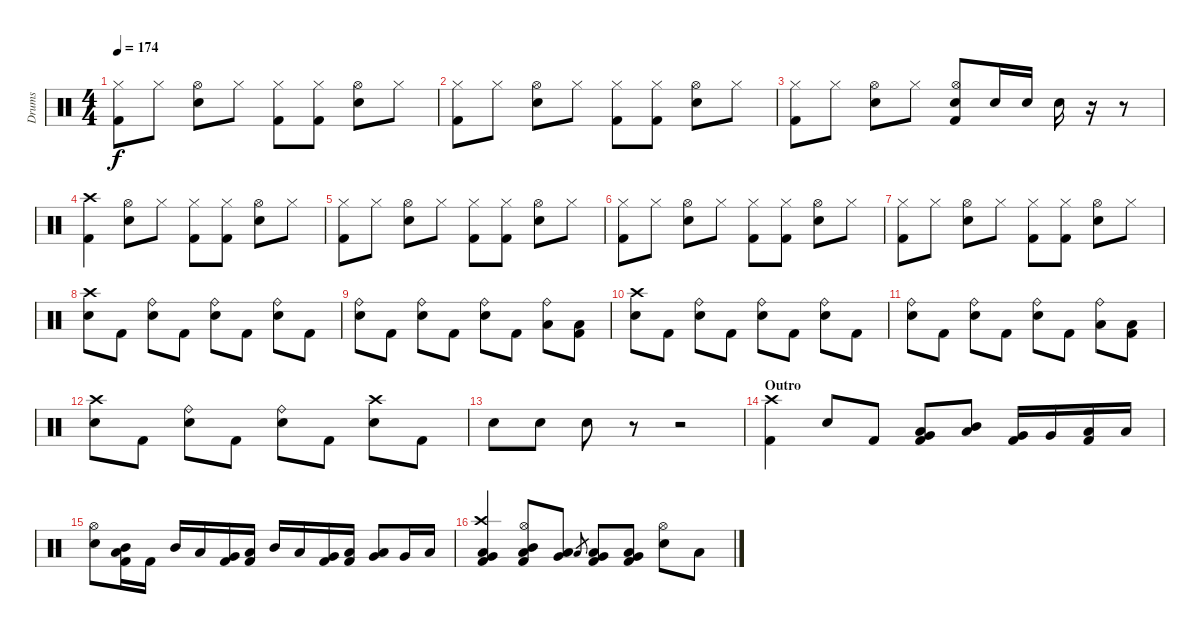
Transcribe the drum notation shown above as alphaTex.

\track ("Drums" "Drums") {instrument percussion}
\staff {score}
\articulation defaults
\ts (4 4)
\tempo 174
\clef neutral
\ks c
("Hi-Hat (closed)" "Kick (hit) 2").8{dy f} "Hi-Hat (closed)".8 ("Hi-Hat (open)" "Electric Snare (hit)").8 "Hi-Hat (closed)".8 ("Hi-Hat (closed)" "Kick (hit) 2").8 ("Hi-Hat (closed)" "Kick (hit) 2").8 ("Hi-Hat (open)" "Electric Snare (hit)").8 "Hi-Hat (closed)".8 |
("Hi-Hat (closed)" "Kick (hit) 2").8 "Hi-Hat (closed)".8 ("Hi-Hat (open)" "Electric Snare (hit)").8 "Hi-Hat (closed)".8 ("Hi-Hat (closed)" "Kick (hit) 2").8 ("Hi-Hat (closed)" "Kick (hit) 2").8 ("Hi-Hat (open)" "Electric Snare (hit)").8 "Hi-Hat (closed)".8 |
("Hi-Hat (closed)" "Kick (hit) 2").8 "Hi-Hat (closed)".8 ("Hi-Hat (open)" "Electric Snare (hit)").8 "Hi-Hat (closed)".8 ("Hi-Hat (open)" "Electric Snare (hit)" "Kick (hit) 2").8 "Electric Snare (hit)".16 "Electric Snare (hit)".16 "Electric Snare (hit)".16 r.16 r.8 |
("Crash high (hit)" "Kick (hit) 2").4 ("Hi-Hat (open)" "Electric Snare (hit)").8 "Hi-Hat (closed)".8 ("Hi-Hat (closed)" "Kick (hit) 2").8 ("Hi-Hat (closed)" "Kick (hit) 2").8 ("Hi-Hat (open)" "Electric Snare (hit)").8 "Hi-Hat (closed)".8 |
("Hi-Hat (closed)" "Kick (hit) 2").8 "Hi-Hat (closed)".8 ("Hi-Hat (open)" "Electric Snare (hit)").8 "Hi-Hat (closed)".8 ("Hi-Hat (closed)" "Kick (hit) 2").8 ("Hi-Hat (closed)" "Kick (hit) 2").8 ("Hi-Hat (open)" "Electric Snare (hit)").8 "Hi-Hat (closed)".8 |
("Hi-Hat (closed)" "Kick (hit) 2").8 "Hi-Hat (closed)".8 ("Hi-Hat (open)" "Electric Snare (hit)").8 "Hi-Hat (closed)".8 ("Hi-Hat (closed)" "Kick (hit) 2").8 ("Hi-Hat (closed)" "Kick (hit) 2").8 ("Hi-Hat (open)" "Electric Snare (hit)").8 "Hi-Hat (closed)".8 |
("Hi-Hat (closed)" "Kick (hit) 2").8 "Hi-Hat (closed)".8 ("Hi-Hat (open)" "Electric Snare (hit)").8 "Hi-Hat (closed)".8 ("Hi-Hat (closed)" "Kick (hit) 2").8 ("Hi-Hat (closed)" "Kick (hit) 2").8 ("Hi-Hat (open)" "Electric Snare (hit)").8 "Hi-Hat (closed)".8 |
("Crash high (hit)" "Electric Snare (hit)").8 "Kick (hit) 2".8 ("Ride (bell)" "Electric Snare (hit)").8 "Kick (hit) 2".8 ("Ride (bell)" "Electric Snare (hit)").8 "Kick (hit) 2".8 ("Ride (bell)" "Electric Snare (hit)").8 "Kick (hit) 2".8 |
("Ride (bell)" "Electric Snare (hit)").8 "Kick (hit) 2".8 ("Ride (bell)" "Electric Snare (hit)").8 "Kick (hit) 2".8 ("Ride (bell)" "Electric Snare (hit)").8 "Kick (hit) 2".8 ("Ride (bell)" "Low Tom (hit)").8 ("Low Tom (hit)" "Kick (hit) 2").8 |
("Crash high (hit)" "Electric Snare (hit)").8 "Kick (hit) 2".8 ("Ride (bell)" "Electric Snare (hit)").8 "Kick (hit) 2".8 ("Ride (bell)" "Electric Snare (hit)").8 "Kick (hit) 2".8 ("Ride (bell)" "Electric Snare (hit)").8 "Kick (hit) 2".8 |
("Ride (bell)" "Electric Snare (hit)").8 "Kick (hit) 2".8 ("Ride (bell)" "Electric Snare (hit)").8 "Kick (hit) 2".8 ("Ride (bell)" "Electric Snare (hit)").8 "Kick (hit) 2".8 ("Ride (bell)" "Low Tom (hit)").8 ("Low Tom (hit)" "Kick (hit) 2").8 |
("Crash high (hit)" "Electric Snare (hit)").8 "Kick (hit) 2".8 ("Ride (bell)" "Electric Snare (hit)").8 "Kick (hit) 2".8 ("Ride (bell)" "Electric Snare (hit)").8 "Kick (hit) 2".8 ("Crash high (hit)" "Electric Snare (hit)").8 "Kick (hit) 2".8 |
"Electric Snare (hit)".8 "Electric Snare (hit)".8 "Electric Snare (hit)".8 r.8 r.2 |
\section ("" "Outro")
("Crash high (hit)" "Kick (hit) 2").4 "Electric Snare (hit)".8 "Kick (hit) 2".8 ("Low Tom (hit)" "Very Low Tom (hit)" "Kick (hit) 2").8 ("Mid Tom (hit)" "Low Tom (hit)").8 ("Very Low Tom (hit)" "Kick (hit) 2").16 "Very Low Tom (hit)".16 ("Low Floor Tom (hit)" "Kick (hit) 2").16 "Low Floor Tom (hit)".16 |
("Hi-Hat (open)" "Electric Snare (hit)").8 ("Mid Tom (hit)" "Low Tom (hit)" "Kick (hit) 2").16 "Kick (hit) 2".16 "Mid Tom (hit)".16 "Low Tom (hit)".16 ("Very Low Tom (hit)" "Kick (hit) 2").16 ("Low Floor Tom (hit)" "Kick (hit) 2").16 "Mid Tom (hit)".16 "Low Tom (hit)".16 ("Very Low Tom (hit)" "Kick (hit) 2").16 ("Low Floor Tom (hit)" "Kick (hit) 2").16 ("Low Tom (hit)" "Very Low Tom (hit)").8 "Very Low Tom (hit)".16 "Low Floor Tom (hit)".16 |
("Crash high (hit)" "Low Tom (hit)" "Very Low Tom (hit)" "Kick (hit) 2").4 ("Hi-Hat (open)" "Mid Tom (hit)" "Low Tom (hit)" "Kick (hit) 2").8 ("Low Tom (hit)" "Very Low Tom (hit)").8 "Low Tom (hit)".8{gr} ("Low Tom (hit)" "Very Low Tom (hit)" "Kick (hit) 2").8 ("Low Tom (hit)" "Very Low Tom (hit)" "Kick (hit) 2").8 ("Hi-Hat (open)" "Electric Snare (hit)").8 "Low Tom (hit)".8
